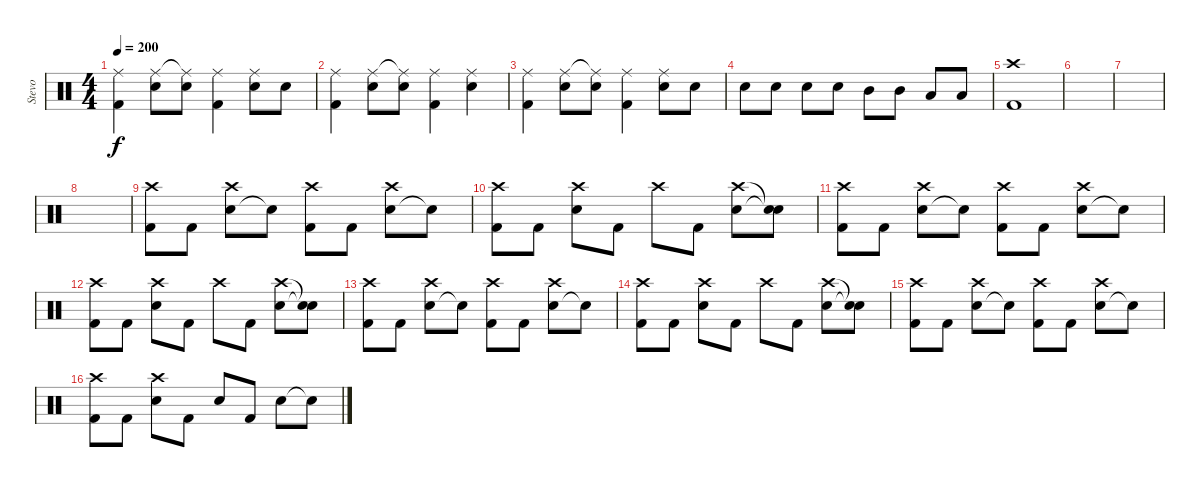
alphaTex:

\track ("Stevo" "Stevo") {instrument percussion}
\staff {score}
\articulation defaults
\ts (4 4)
\tempo 200
\clef neutral
\ks c
("Kick (hit) 2" "Ride (middle)").4{dy f} ("Ride (middle)" "Snare (hit) 2").8 ("Ride (middle)"{t} "Snare (hit) 2").8 ("Kick (hit) 2" "Ride (middle)").4 ("Ride (middle)" "Snare (hit) 2").8 "Snare (hit) 2".8 |
("Kick (hit) 2" "Ride (middle)").4 ("Ride (middle)" "Snare (hit) 2").8 ("Ride (middle)"{t} "Snare (hit) 2").8 ("Kick (hit) 2" "Ride (middle)").4 ("Ride (middle)" "Snare (hit) 2").4 |
("Kick (hit) 2" "Ride (middle)").4 ("Ride (middle)" "Snare (hit) 2").8 ("Ride (middle)"{t} "Snare (hit) 2").8 ("Kick (hit) 2" "Ride (middle)").4 ("Ride (middle)" "Snare (hit) 2").8 "Snare (hit) 2".8 |
"Snare (hit) 2".8 "Snare (hit) 2".8 "Snare (hit) 2".8 "Snare (hit) 2".8 "Mid Tom (hit)".8 "Mid Tom (hit)".8 "Low Tom (hit)".8 "Low Tom (hit)".8 |
("Kick (hit) 2" "Crash high (hit)").1 |
|
|
|
("Kick (hit) 2" "Crash high (hit)").8 "Kick (hit) 2".8 ("Snare (hit) 2" "Crash high (hit)").8 "Snare (hit)"{t}.8 ("Kick (hit) 2" "Crash high (hit)").8 "Kick (hit) 2".8 ("Snare (hit) 2" "Crash high (hit)").8 "Snare (hit)"{t}.8 |
("Kick (hit) 2" "Crash high (hit)").8 "Kick (hit) 2".8 ("Snare (hit) 2" "Crash high (hit)").8 "Kick (hit) 2".8 "Crash high (hit)".8 "Kick (hit) 2".8 ("Snare (hit) 2" "Crash high (hit)").8 ("Snare (hit)"{t} "Snare (hit)"{t}).8 |
("Kick (hit) 2" "Crash high (hit)").8 "Kick (hit) 2".8 ("Snare (hit) 2" "Crash high (hit)").8 "Snare (hit)"{t}.8 ("Kick (hit) 2" "Crash high (hit)").8 "Kick (hit) 2".8 ("Snare (hit) 2" "Crash high (hit)").8 "Snare (hit)"{t}.8 |
("Kick (hit) 2" "Crash high (hit)").8 "Kick (hit) 2".8 ("Snare (hit) 2" "Crash high (hit)").8 "Kick (hit) 2".8 "Crash high (hit)".8 "Kick (hit) 2".8 ("Snare (hit) 2" "Crash high (hit)").8 ("Snare (hit)"{t} "Snare (hit)"{t}).8 |
("Kick (hit) 2" "Crash high (hit)").8 "Kick (hit) 2".8 ("Snare (hit) 2" "Crash high (hit)").8 "Snare (hit)"{t}.8 ("Kick (hit) 2" "Crash high (hit)").8 "Kick (hit) 2".8 ("Snare (hit) 2" "Crash high (hit)").8 "Snare (hit)"{t}.8 |
("Kick (hit) 2" "Crash high (hit)").8 "Kick (hit) 2".8 ("Snare (hit) 2" "Crash high (hit)").8 "Kick (hit) 2".8 "Crash high (hit)".8 "Kick (hit) 2".8 ("Snare (hit) 2" "Crash high (hit)").8 ("Snare (hit)"{t} "Snare (hit)"{t}).8 |
("Kick (hit) 2" "Crash high (hit)").8 "Kick (hit) 2".8 ("Snare (hit) 2" "Crash high (hit)").8 "Snare (hit)"{t}.8 ("Kick (hit) 2" "Crash high (hit)").8 "Kick (hit) 2".8 ("Snare (hit) 2" "Crash high (hit)").8 "Snare (hit)"{t}.8 |
("Kick (hit) 2" "Crash high (hit)").8 "Kick (hit) 2".8 ("Snare (hit) 2" "Crash high (hit)").8 "Kick (hit) 2".8 "Snare (hit) 2".8 "Kick (hit) 2".8 "Snare (hit) 2".8 "Snare (hit)"{t}.8
